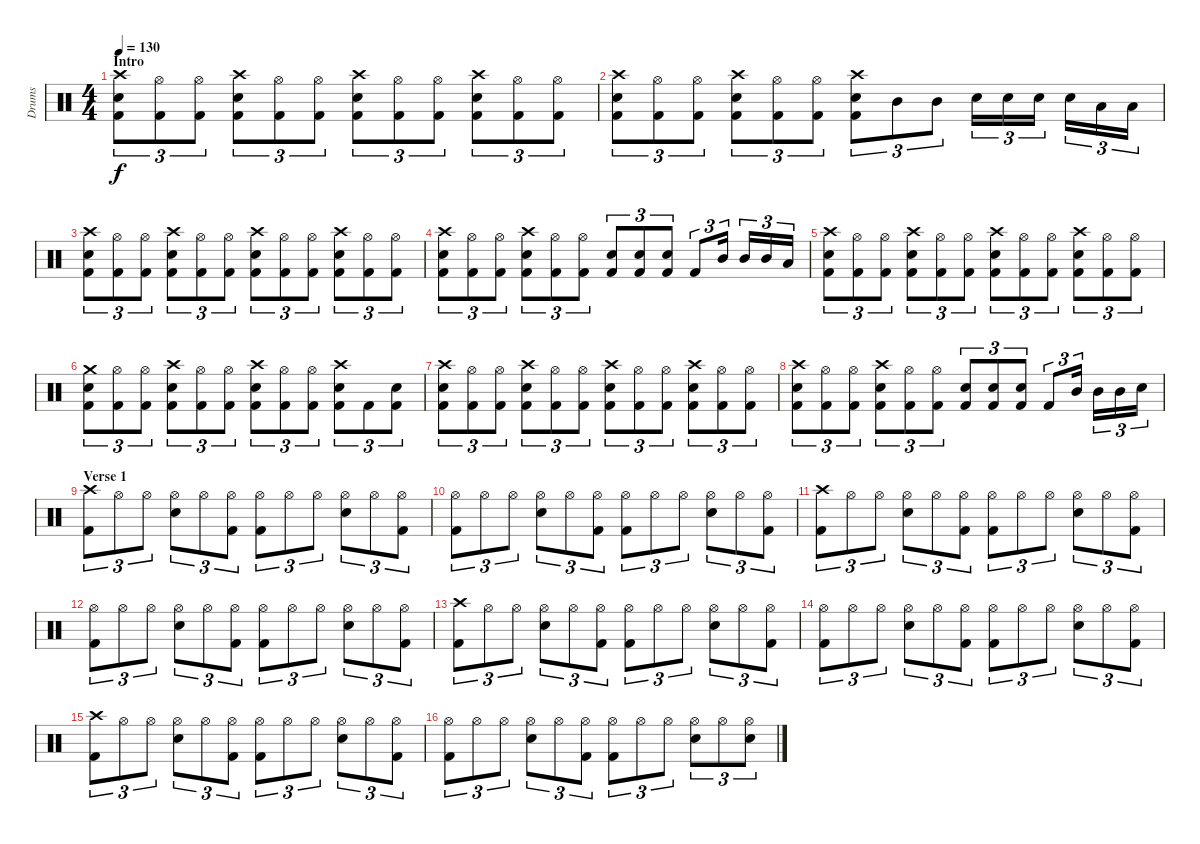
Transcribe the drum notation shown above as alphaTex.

\track ("Drums" "Drums") {instrument percussion}
\staff {score}
\articulation defaults
\ts (4 4)
\section ("" "Intro")
\tempo 130
\clef neutral
\ks c
("Crash high (hit)" "Electric Snare (hit)" "Kick (hit) 2").8{tu (3 2) dy f} ("Hi-Hat (open)" "Kick (hit) 2").8{tu (3 2)} ("Hi-Hat (open)" "Kick (hit) 2").8{tu (3 2)} ("Crash high (hit)" "Electric Snare (hit)" "Kick (hit) 2").8{tu (3 2)} ("Hi-Hat (open)" "Kick (hit) 2").8{tu (3 2)} ("Hi-Hat (open)" "Kick (hit) 2").8{tu (3 2)} ("Crash high (hit)" "Electric Snare (hit)" "Kick (hit) 2").8{tu (3 2)} ("Hi-Hat (open)" "Kick (hit) 2").8{tu (3 2)} ("Hi-Hat (open)" "Kick (hit) 2").8{tu (3 2)} ("Crash high (hit)" "Electric Snare (hit)" "Kick (hit) 2").8{tu (3 2)} ("Hi-Hat (open)" "Kick (hit) 2").8{tu (3 2)} ("Hi-Hat (open)" "Kick (hit) 2").8{tu (3 2)} |
("Crash high (hit)" "Electric Snare (hit)" "Kick (hit) 2").8{tu (3 2)} ("Hi-Hat (open)" "Kick (hit) 2").8{tu (3 2)} ("Hi-Hat (open)" "Kick (hit) 2").8{tu (3 2)} ("Crash high (hit)" "Electric Snare (hit)" "Kick (hit) 2").8{tu (3 2)} ("Hi-Hat (open)" "Kick (hit) 2").8{tu (3 2)} ("Hi-Hat (open)" "Kick (hit) 2").8{tu (3 2)} ("Crash high (hit)" "Electric Snare (hit)" "Kick (hit) 2").8{tu (3 2)} "Mid Tom (hit)".8{tu (3 2)} "Mid Tom (hit)".8{tu (3 2)} "Electric Snare (hit)".16{tu (3 2)} "Electric Snare (hit)".16{tu (3 2)} "Electric Snare (hit)".16{tu (3 2)} "Electric Snare (hit)".16{tu (3 2)} "Low Tom (hit)".16{tu (3 2)} "Low Tom (hit)".16{tu (3 2)} |
("Crash high (hit)" "Electric Snare (hit)" "Kick (hit) 2").8{tu (3 2)} ("Hi-Hat (open)" "Kick (hit) 2").8{tu (3 2)} ("Hi-Hat (open)" "Kick (hit) 2").8{tu (3 2)} ("Crash high (hit)" "Electric Snare (hit)" "Kick (hit) 2").8{tu (3 2)} ("Hi-Hat (open)" "Kick (hit) 2").8{tu (3 2)} ("Hi-Hat (open)" "Kick (hit) 2").8{tu (3 2)} ("Crash high (hit)" "Electric Snare (hit)" "Kick (hit) 2").8{tu (3 2)} ("Hi-Hat (open)" "Kick (hit) 2").8{tu (3 2)} ("Hi-Hat (open)" "Kick (hit) 2").8{tu (3 2)} ("Crash high (hit)" "Electric Snare (hit)" "Kick (hit) 2").8{tu (3 2)} ("Hi-Hat (open)" "Kick (hit) 2").8{tu (3 2)} ("Hi-Hat (open)" "Kick (hit) 2").8{tu (3 2)} |
("Crash high (hit)" "Electric Snare (hit)" "Kick (hit) 2").8{tu (3 2)} ("Hi-Hat (open)" "Kick (hit) 2").8{tu (3 2)} ("Hi-Hat (open)" "Kick (hit) 2").8{tu (3 2)} ("Crash high (hit)" "Electric Snare (hit)" "Kick (hit) 2").8{tu (3 2)} ("Hi-Hat (open)" "Kick (hit) 2").8{tu (3 2)} ("Hi-Hat (open)" "Kick (hit) 2").8{tu (3 2)} ("Electric Snare (hit)" "Kick (hit) 2").8{tu (3 2)} ("Electric Snare (hit)" "Kick (hit) 2").8{tu (3 2)} ("Electric Snare (hit)" "Kick (hit) 2").8{tu (3 2)} "Kick (hit) 2".8{tu (3 2)} "Mid Tom (hit)".16{tu (3 2)} "Mid Tom (hit)".16{tu (3 2)} "Mid Tom (hit)".16{tu (3 2)} "Low Tom (hit)".16{tu (3 2)} |
("Crash high (hit)" "Electric Snare (hit)" "Kick (hit) 2").8{tu (3 2)} ("Hi-Hat (open)" "Kick (hit) 2").8{tu (3 2)} ("Hi-Hat (open)" "Kick (hit) 2").8{tu (3 2)} ("Crash high (hit)" "Electric Snare (hit)" "Kick (hit) 2").8{tu (3 2)} ("Hi-Hat (open)" "Kick (hit) 2").8{tu (3 2)} ("Hi-Hat (open)" "Kick (hit) 2").8{tu (3 2)} ("Crash high (hit)" "Electric Snare (hit)" "Kick (hit) 2").8{tu (3 2)} ("Hi-Hat (open)" "Kick (hit) 2").8{tu (3 2)} ("Hi-Hat (open)" "Kick (hit) 2").8{tu (3 2)} ("Crash high (hit)" "Electric Snare (hit)" "Kick (hit) 2").8{tu (3 2)} ("Hi-Hat (open)" "Kick (hit) 2").8{tu (3 2)} ("Hi-Hat (open)" "Kick (hit) 2").8{tu (3 2)} |
("Crash medium (hit)" "Electric Snare (hit)" "Kick (hit) 2").8{tu (3 2)} ("Hi-Hat (open)" "Kick (hit) 2").8{tu (3 2)} ("Hi-Hat (open)" "Kick (hit) 2").8{tu (3 2)} ("Crash high (hit)" "Electric Snare (hit)" "Kick (hit) 2").8{tu (3 2)} ("Hi-Hat (open)" "Kick (hit) 2").8{tu (3 2)} ("Hi-Hat (open)" "Kick (hit) 2").8{tu (3 2)} ("Crash high (hit)" "Electric Snare (hit)" "Kick (hit) 2").8{tu (3 2)} ("Hi-Hat (open)" "Kick (hit) 2").8{tu (3 2)} ("Hi-Hat (open)" "Kick (hit) 2").8{tu (3 2)} ("Crash high (hit)" "Electric Snare (hit)" "Kick (hit) 2").8{tu (3 2)} "Kick (hit) 2".8{tu (3 2)} ("Electric Snare (hit)" "Kick (hit) 2").8{tu (3 2)} |
("Crash high (hit)" "Electric Snare (hit)" "Kick (hit) 2").8{tu (3 2)} ("Hi-Hat (open)" "Kick (hit) 2").8{tu (3 2)} ("Hi-Hat (open)" "Kick (hit) 2").8{tu (3 2)} ("Crash high (hit)" "Electric Snare (hit)" "Kick (hit) 2").8{tu (3 2)} ("Hi-Hat (open)" "Kick (hit) 2").8{tu (3 2)} ("Hi-Hat (open)" "Kick (hit) 2").8{tu (3 2)} ("Crash high (hit)" "Electric Snare (hit)" "Kick (hit) 2").8{tu (3 2)} ("Hi-Hat (open)" "Kick (hit) 2").8{tu (3 2)} ("Hi-Hat (open)" "Kick (hit) 2").8{tu (3 2)} ("Crash high (hit)" "Electric Snare (hit)" "Kick (hit) 2").8{tu (3 2)} ("Hi-Hat (open)" "Kick (hit) 2").8{tu (3 2)} ("Hi-Hat (open)" "Kick (hit) 2").8{tu (3 2)} |
("Crash high (hit)" "Electric Snare (hit)" "Kick (hit) 2").8{tu (3 2)} ("Hi-Hat (open)" "Kick (hit) 2").8{tu (3 2)} ("Hi-Hat (open)" "Kick (hit) 2").8{tu (3 2)} ("Crash high (hit)" "Electric Snare (hit)" "Kick (hit) 2").8{tu (3 2)} ("Hi-Hat (open)" "Kick (hit) 2").8{tu (3 2)} ("Hi-Hat (open)" "Kick (hit) 2").8{tu (3 2)} ("Electric Snare (hit)" "Kick (hit) 2").8{tu (3 2)} ("Electric Snare (hit)" "Kick (hit) 2").8{tu (3 2)} ("Electric Snare (hit)" "Kick (hit) 2").8{tu (3 2)} "Kick (hit) 2".8{tu (3 2)} "Mid Tom (hit)".16{tu (3 2)} "Mid Tom (hit)".16{tu (3 2)} "Mid Tom (hit)".16{tu (3 2)} "Electric Snare (hit)".16{tu (3 2)} |
\section ("" "Verse 1")
("Crash high (hit)" "Kick (hit) 2").8{tu (3 2)} "Hi-Hat (open)".8{tu (3 2)} "Hi-Hat (open)".8{tu (3 2)} ("Hi-Hat (open)" "Electric Snare (hit)").8{tu (3 2)} "Hi-Hat (open)".8{tu (3 2)} ("Hi-Hat (open)" "Kick (hit) 2").8{tu (3 2)} ("Hi-Hat (open)" "Kick (hit) 2").8{tu (3 2)} "Hi-Hat (open)".8{tu (3 2)} "Hi-Hat (open)".8{tu (3 2)} ("Hi-Hat (open)" "Electric Snare (hit)").8{tu (3 2)} "Hi-Hat (open)".8{tu (3 2)} ("Hi-Hat (open)" "Kick (hit) 2").8{tu (3 2)} |
("Hi-Hat (open)" "Kick (hit) 2").8{tu (3 2)} "Hi-Hat (open)".8{tu (3 2)} "Hi-Hat (open)".8{tu (3 2)} ("Hi-Hat (open)" "Electric Snare (hit)").8{tu (3 2)} "Hi-Hat (open)".8{tu (3 2)} ("Hi-Hat (open)" "Kick (hit) 2").8{tu (3 2)} ("Hi-Hat (open)" "Kick (hit) 2").8{tu (3 2)} "Hi-Hat (open)".8{tu (3 2)} "Hi-Hat (open)".8{tu (3 2)} ("Hi-Hat (open)" "Electric Snare (hit)").8{tu (3 2)} "Hi-Hat (open)".8{tu (3 2)} ("Hi-Hat (open)" "Kick (hit) 2").8{tu (3 2)} |
("Crash high (hit)" "Kick (hit) 2").8{tu (3 2)} "Hi-Hat (open)".8{tu (3 2)} "Hi-Hat (open)".8{tu (3 2)} ("Hi-Hat (open)" "Electric Snare (hit)").8{tu (3 2)} "Hi-Hat (open)".8{tu (3 2)} ("Hi-Hat (open)" "Kick (hit) 2").8{tu (3 2)} ("Hi-Hat (open)" "Kick (hit) 2").8{tu (3 2)} "Hi-Hat (open)".8{tu (3 2)} "Hi-Hat (open)".8{tu (3 2)} ("Hi-Hat (open)" "Electric Snare (hit)").8{tu (3 2)} "Hi-Hat (open)".8{tu (3 2)} ("Hi-Hat (open)" "Kick (hit) 2").8{tu (3 2)} |
("Hi-Hat (open)" "Kick (hit) 2").8{tu (3 2)} "Hi-Hat (open)".8{tu (3 2)} "Hi-Hat (open)".8{tu (3 2)} ("Hi-Hat (open)" "Electric Snare (hit)").8{tu (3 2)} "Hi-Hat (open)".8{tu (3 2)} ("Hi-Hat (open)" "Kick (hit) 2").8{tu (3 2)} ("Hi-Hat (open)" "Kick (hit) 2").8{tu (3 2)} "Hi-Hat (open)".8{tu (3 2)} "Hi-Hat (open)".8{tu (3 2)} ("Hi-Hat (open)" "Electric Snare (hit)").8{tu (3 2)} "Hi-Hat (open)".8{tu (3 2)} ("Hi-Hat (open)" "Kick (hit) 2").8{tu (3 2)} |
("Crash high (hit)" "Kick (hit) 2").8{tu (3 2)} "Hi-Hat (open)".8{tu (3 2)} "Hi-Hat (open)".8{tu (3 2)} ("Hi-Hat (open)" "Electric Snare (hit)").8{tu (3 2)} "Hi-Hat (open)".8{tu (3 2)} ("Hi-Hat (open)" "Kick (hit) 2").8{tu (3 2)} ("Hi-Hat (open)" "Kick (hit) 2").8{tu (3 2)} "Hi-Hat (open)".8{tu (3 2)} "Hi-Hat (open)".8{tu (3 2)} ("Hi-Hat (open)" "Electric Snare (hit)").8{tu (3 2)} "Hi-Hat (open)".8{tu (3 2)} ("Hi-Hat (open)" "Kick (hit) 2").8{tu (3 2)} |
("Hi-Hat (open)" "Kick (hit) 2").8{tu (3 2)} "Hi-Hat (open)".8{tu (3 2)} "Hi-Hat (open)".8{tu (3 2)} ("Hi-Hat (open)" "Electric Snare (hit)").8{tu (3 2)} "Hi-Hat (open)".8{tu (3 2)} ("Hi-Hat (open)" "Kick (hit) 2").8{tu (3 2)} ("Hi-Hat (open)" "Kick (hit) 2").8{tu (3 2)} "Hi-Hat (open)".8{tu (3 2)} "Hi-Hat (open)".8{tu (3 2)} ("Hi-Hat (open)" "Electric Snare (hit)").8{tu (3 2)} "Hi-Hat (open)".8{tu (3 2)} ("Hi-Hat (open)" "Kick (hit) 2").8{tu (3 2)} |
("Crash high (hit)" "Kick (hit) 2").8{tu (3 2)} "Hi-Hat (open)".8{tu (3 2)} "Hi-Hat (open)".8{tu (3 2)} ("Hi-Hat (open)" "Electric Snare (hit)").8{tu (3 2)} "Hi-Hat (open)".8{tu (3 2)} ("Hi-Hat (open)" "Kick (hit) 2").8{tu (3 2)} ("Hi-Hat (open)" "Kick (hit) 2").8{tu (3 2)} "Hi-Hat (open)".8{tu (3 2)} "Hi-Hat (open)".8{tu (3 2)} ("Hi-Hat (open)" "Electric Snare (hit)").8{tu (3 2)} "Hi-Hat (open)".8{tu (3 2)} ("Hi-Hat (open)" "Kick (hit) 2").8{tu (3 2)} |
("Hi-Hat (open)" "Kick (hit) 2").8{tu (3 2)} "Hi-Hat (open)".8{tu (3 2)} "Hi-Hat (open)".8{tu (3 2)} ("Hi-Hat (open)" "Electric Snare (hit)").8{tu (3 2)} "Hi-Hat (open)".8{tu (3 2)} ("Hi-Hat (open)" "Kick (hit) 2").8{tu (3 2)} ("Hi-Hat (open)" "Kick (hit) 2").8{tu (3 2)} "Hi-Hat (open)".8{tu (3 2)} "Hi-Hat (open)".8{tu (3 2)} ("Hi-Hat (open)" "Electric Snare (hit)").8{tu (3 2)} "Hi-Hat (open)".8{tu (3 2)} ("Hi-Hat (open)" "Electric Snare (hit)").8{tu (3 2)}
